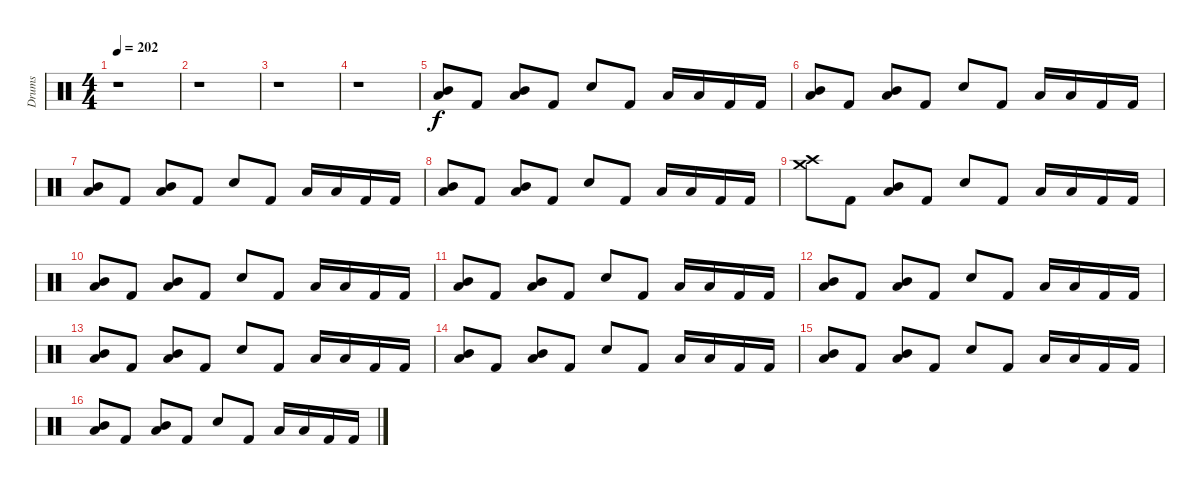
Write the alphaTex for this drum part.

\track ("Drums" "Drums") {instrument percussion}
\staff {score}
\articulation defaults
\ts (4 4)
\tempo 202
\clef neutral
\ks c
r.1{dy f} |
r.1 |
r.1 |
r.1 |
("Mid Tom (hit)" "Low Tom (hit)").8 "Kick (hit) 2".8 ("Mid Tom (hit)" "Low Tom (hit)").8 "Kick (hit) 2".8 "Electric Snare (hit)".8 "Kick (hit) 2".8 "Low Tom (hit)".16 "Low Tom (hit)".16 "Kick (hit) 2".16 "Kick (hit) 2".16 |
("Mid Tom (hit)" "Low Tom (hit)").8 "Kick (hit) 2".8 ("Mid Tom (hit)" "Low Tom (hit)").8 "Kick (hit) 2".8 "Electric Snare (hit)".8 "Kick (hit) 2".8 "Low Tom (hit)".16 "Low Tom (hit)".16 "Kick (hit) 2".16 "Kick (hit) 2".16 |
("Mid Tom (hit)" "Low Tom (hit)").8 "Kick (hit) 2".8 ("Mid Tom (hit)" "Low Tom (hit)").8 "Kick (hit) 2".8 "Electric Snare (hit)".8 "Kick (hit) 2".8 "Low Tom (hit)".16 "Low Tom (hit)".16 "Kick (hit) 2".16 "Kick (hit) 2".16 |
("Mid Tom (hit)" "Low Tom (hit)").8 "Kick (hit) 2".8 ("Mid Tom (hit)" "Low Tom (hit)").8 "Kick (hit) 2".8 "Electric Snare (hit)".8 "Kick (hit) 2".8 "Low Tom (hit)".16 "Low Tom (hit)".16 "Kick (hit) 2".16 "Kick (hit) 2".16 |
("Crash medium (hit)" "Crash high (hit)").8 "Kick (hit) 2".8 ("Mid Tom (hit)" "Low Tom (hit)").8 "Kick (hit) 2".8 "Electric Snare (hit)".8 "Kick (hit) 2".8 "Low Tom (hit)".16 "Low Tom (hit)".16 "Kick (hit) 2".16 "Kick (hit) 2".16 |
("Mid Tom (hit)" "Low Tom (hit)").8 "Kick (hit) 2".8 ("Mid Tom (hit)" "Low Tom (hit)").8 "Kick (hit) 2".8 "Electric Snare (hit)".8 "Kick (hit) 2".8 "Low Tom (hit)".16 "Low Tom (hit)".16 "Kick (hit) 2".16 "Kick (hit) 2".16 |
("Mid Tom (hit)" "Low Tom (hit)").8 "Kick (hit) 2".8 ("Mid Tom (hit)" "Low Tom (hit)").8 "Kick (hit) 2".8 "Electric Snare (hit)".8 "Kick (hit) 2".8 "Low Tom (hit)".16 "Low Tom (hit)".16 "Kick (hit) 2".16 "Kick (hit) 2".16 |
("Mid Tom (hit)" "Low Tom (hit)").8 "Kick (hit) 2".8 ("Mid Tom (hit)" "Low Tom (hit)").8 "Kick (hit) 2".8 "Electric Snare (hit)".8 "Kick (hit) 2".8 "Low Tom (hit)".16 "Low Tom (hit)".16 "Kick (hit) 2".16 "Kick (hit) 2".16 |
("Mid Tom (hit)" "Low Tom (hit)").8 "Kick (hit) 2".8 ("Mid Tom (hit)" "Low Tom (hit)").8 "Kick (hit) 2".8 "Electric Snare (hit)".8 "Kick (hit) 2".8 "Low Tom (hit)".16 "Low Tom (hit)".16 "Kick (hit) 2".16 "Kick (hit) 2".16 |
("Mid Tom (hit)" "Low Tom (hit)").8 "Kick (hit) 2".8 ("Mid Tom (hit)" "Low Tom (hit)").8 "Kick (hit) 2".8 "Electric Snare (hit)".8 "Kick (hit) 2".8 "Low Tom (hit)".16 "Low Tom (hit)".16 "Kick (hit) 2".16 "Kick (hit) 2".16 |
("Mid Tom (hit)" "Low Tom (hit)").8 "Kick (hit) 2".8 ("Mid Tom (hit)" "Low Tom (hit)").8 "Kick (hit) 2".8 "Electric Snare (hit)".8 "Kick (hit) 2".8 "Low Tom (hit)".16 "Low Tom (hit)".16 "Kick (hit) 2".16 "Kick (hit) 2".16 |
("Mid Tom (hit)" "Low Tom (hit)").8 "Kick (hit) 2".8 ("Mid Tom (hit)" "Low Tom (hit)").8 "Kick (hit) 2".8 "Electric Snare (hit)".8 "Kick (hit) 2".8 "Low Tom (hit)".16 "Low Tom (hit)".16 "Kick (hit) 2".16 "Kick (hit) 2".16
